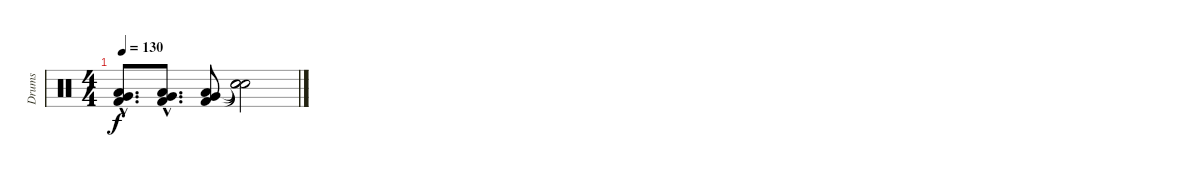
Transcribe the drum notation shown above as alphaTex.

\track ("Drums" "Drums") {instrument percussion}
\staff {score}
\articulation defaults
\ts (4 4)
\tempo 130
\clef neutral
\ks c
("Low Floor Tom (hit)"{hac} "Very Low Tom (hit)"{hac} "Kick (hit) 2"{hac}).8{d dy f} ("Low Floor Tom (hit)"{hac} "Very Low Tom (hit)"{hac} "Kick (hit) 2"{hac}).8{d} ("Low Floor Tom (hit)" "Very Low Tom (hit)" "Kick (hit) 2").8 ("Snare (hit)"{t} "Snare (hit)"{t} "Snare (hit)"{t}).2
